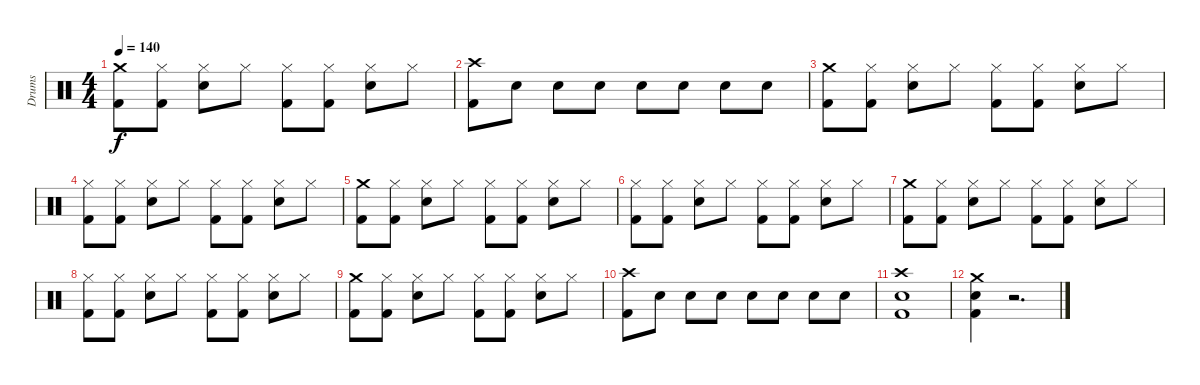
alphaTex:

\track ("Drums" "Drums") {instrument percussion}
\staff {score}
\articulation defaults
\ts (4 4)
\tempo 140
\clef neutral
\ks c
("Crash medium (hit)" "Kick (hit) 2").8{dy f} ("Hi-Hat (closed)" "Kick (hit) 2").8 ("Hi-Hat (closed)" "Electric Snare (hit)").8 "Hi-Hat (closed)".8 ("Hi-Hat (closed)" "Kick (hit) 2").8 ("Hi-Hat (closed)" "Kick (hit) 2").8 ("Hi-Hat (closed)" "Electric Snare (hit)").8 "Hi-Hat (closed)".8 |
("Crash high (hit)" "Kick (hit) 2").8 "Electric Snare (hit)".8 "Electric Snare (hit)".8 "Electric Snare (hit)".8 "Electric Snare (hit)".8 "Electric Snare (hit)".8 "Electric Snare (hit)".8 "Electric Snare (hit)".8 |
("Crash medium (hit)" "Kick (hit) 2").8 ("Hi-Hat (closed)" "Kick (hit) 2").8 ("Hi-Hat (closed)" "Electric Snare (hit)").8 "Hi-Hat (closed)".8 ("Hi-Hat (closed)" "Kick (hit) 2").8 ("Hi-Hat (closed)" "Kick (hit) 2").8 ("Hi-Hat (closed)" "Electric Snare (hit)").8 "Hi-Hat (closed)".8 |
("Hi-Hat (closed)" "Kick (hit) 2").8 ("Hi-Hat (closed)" "Kick (hit) 2").8 ("Hi-Hat (closed)" "Electric Snare (hit)").8 "Hi-Hat (closed)".8 ("Hi-Hat (closed)" "Kick (hit) 2").8 ("Hi-Hat (closed)" "Kick (hit) 2").8 ("Hi-Hat (closed)" "Electric Snare (hit)").8 "Hi-Hat (closed)".8 |
("Crash medium (hit)" "Kick (hit) 2").8 ("Hi-Hat (closed)" "Kick (hit) 2").8 ("Hi-Hat (closed)" "Electric Snare (hit)").8 "Hi-Hat (closed)".8 ("Hi-Hat (closed)" "Kick (hit) 2").8 ("Hi-Hat (closed)" "Kick (hit) 2").8 ("Hi-Hat (closed)" "Electric Snare (hit)").8 "Hi-Hat (closed)".8 |
("Hi-Hat (closed)" "Kick (hit) 2").8 ("Hi-Hat (closed)" "Kick (hit) 2").8 ("Hi-Hat (closed)" "Electric Snare (hit)").8 "Hi-Hat (closed)".8 ("Hi-Hat (closed)" "Kick (hit) 2").8 ("Hi-Hat (closed)" "Kick (hit) 2").8 ("Hi-Hat (closed)" "Electric Snare (hit)").8 "Hi-Hat (closed)".8 |
("Crash medium (hit)" "Kick (hit) 2").8 ("Hi-Hat (closed)" "Kick (hit) 2").8 ("Hi-Hat (closed)" "Electric Snare (hit)").8 "Hi-Hat (closed)".8 ("Hi-Hat (closed)" "Kick (hit) 2").8 ("Hi-Hat (closed)" "Kick (hit) 2").8 ("Hi-Hat (closed)" "Electric Snare (hit)").8 "Hi-Hat (closed)".8 |
("Hi-Hat (closed)" "Kick (hit) 2").8 ("Hi-Hat (closed)" "Kick (hit) 2").8 ("Hi-Hat (closed)" "Electric Snare (hit)").8 "Hi-Hat (closed)".8 ("Hi-Hat (closed)" "Kick (hit) 2").8 ("Hi-Hat (closed)" "Kick (hit) 2").8 ("Hi-Hat (closed)" "Electric Snare (hit)").8 "Hi-Hat (closed)".8 |
("Crash medium (hit)" "Kick (hit) 2").8 ("Hi-Hat (closed)" "Kick (hit) 2").8 ("Hi-Hat (closed)" "Electric Snare (hit)").8 "Hi-Hat (closed)".8 ("Hi-Hat (closed)" "Kick (hit) 2").8 ("Hi-Hat (closed)" "Kick (hit) 2").8 ("Hi-Hat (closed)" "Electric Snare (hit)").8 "Hi-Hat (closed)".8 |
("Crash high (hit)" "Kick (hit) 2").8 "Electric Snare (hit)".8 "Electric Snare (hit)".8 "Electric Snare (hit)".8 "Electric Snare (hit)".8 "Electric Snare (hit)".8 "Electric Snare (hit)".8 "Electric Snare (hit)".8 |
("Crash high (hit)" "Electric Snare (hit)" "Kick (hit) 2").1 |
("Crash medium (hit)" "Electric Snare (hit)" "Kick (hit) 2").4 r.2{d}
